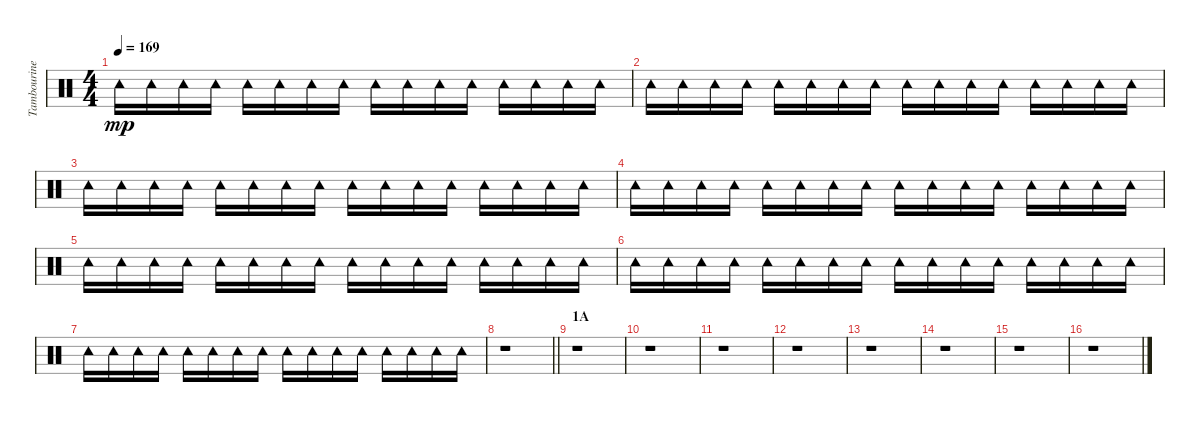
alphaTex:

\track ("Tambourine" "Tambourine") {instrument percussion}
\staff {score}
\articulation defaults
\ts (4 4)
\tempo 169
\clef neutral
\ks c "Tambourine (hit)".16{dy mp} "Tambourine (hit)".16 "Tambourine (hit)".16 "Tambourine (hit)".16 "Tambourine (hit)".16 "Tambourine (hit)".16 "Tambourine (hit)".16 "Tambourine (hit)".16 "Tambourine (hit)".16 "Tambourine (hit)".16 "Tambourine (hit)".16 "Tambourine (hit)".16 "Tambourine (hit)".16 "Tambourine (hit)".16 "Tambourine (hit)".16 "Tambourine (hit)".16
|
"Tambourine (hit)".16 "Tambourine (hit)".16 "Tambourine (hit)".16 "Tambourine (hit)".16 "Tambourine (hit)".16 "Tambourine (hit)".16 "Tambourine (hit)".16 "Tambourine (hit)".16 "Tambourine (hit)".16 "Tambourine (hit)".16 "Tambourine (hit)".16 "Tambourine (hit)".16 "Tambourine (hit)".16 "Tambourine (hit)".16 "Tambourine (hit)".16 "Tambourine (hit)".16 |
"Tambourine (hit)".16 "Tambourine (hit)".16 "Tambourine (hit)".16 "Tambourine (hit)".16 "Tambourine (hit)".16 "Tambourine (hit)".16 "Tambourine (hit)".16 "Tambourine (hit)".16 "Tambourine (hit)".16 "Tambourine (hit)".16 "Tambourine (hit)".16 "Tambourine (hit)".16 "Tambourine (hit)".16 "Tambourine (hit)".16 "Tambourine (hit)".16 "Tambourine (hit)".16 |
"Tambourine (hit)".16 "Tambourine (hit)".16 "Tambourine (hit)".16 "Tambourine (hit)".16 "Tambourine (hit)".16 "Tambourine (hit)".16 "Tambourine (hit)".16 "Tambourine (hit)".16 "Tambourine (hit)".16 "Tambourine (hit)".16 "Tambourine (hit)".16 "Tambourine (hit)".16 "Tambourine (hit)".16 "Tambourine (hit)".16 "Tambourine (hit)".16 "Tambourine (hit)".16 |
"Tambourine (hit)".16 "Tambourine (hit)".16 "Tambourine (hit)".16 "Tambourine (hit)".16 "Tambourine (hit)".16 "Tambourine (hit)".16 "Tambourine (hit)".16 "Tambourine (hit)".16 "Tambourine (hit)".16 "Tambourine (hit)".16 "Tambourine (hit)".16 "Tambourine (hit)".16 "Tambourine (hit)".16 "Tambourine (hit)".16 "Tambourine (hit)".16 "Tambourine (hit)".16 |
"Tambourine (hit)".16 "Tambourine (hit)".16 "Tambourine (hit)".16 "Tambourine (hit)".16 "Tambourine (hit)".16 "Tambourine (hit)".16 "Tambourine (hit)".16 "Tambourine (hit)".16 "Tambourine (hit)".16 "Tambourine (hit)".16 "Tambourine (hit)".16 "Tambourine (hit)".16 "Tambourine (hit)".16 "Tambourine (hit)".16 "Tambourine (hit)".16 "Tambourine (hit)".16 |
"Tambourine (hit)".16 "Tambourine (hit)".16 "Tambourine (hit)".16 "Tambourine (hit)".16 "Tambourine (hit)".16 "Tambourine (hit)".16 "Tambourine (hit)".16 "Tambourine (hit)".16 "Tambourine (hit)".16 "Tambourine (hit)".16 "Tambourine (hit)".16 "Tambourine (hit)".16 "Tambourine (hit)".16 "Tambourine (hit)".16 "Tambourine (hit)".16 "Tambourine (hit)".16 |
\barLineRight lightlight
r.1 |
\section ("" "1A")
r.1 |
r.1 |
r.1 |
r.1 |
r.1 |
r.1 |
r.1 |
r.1
